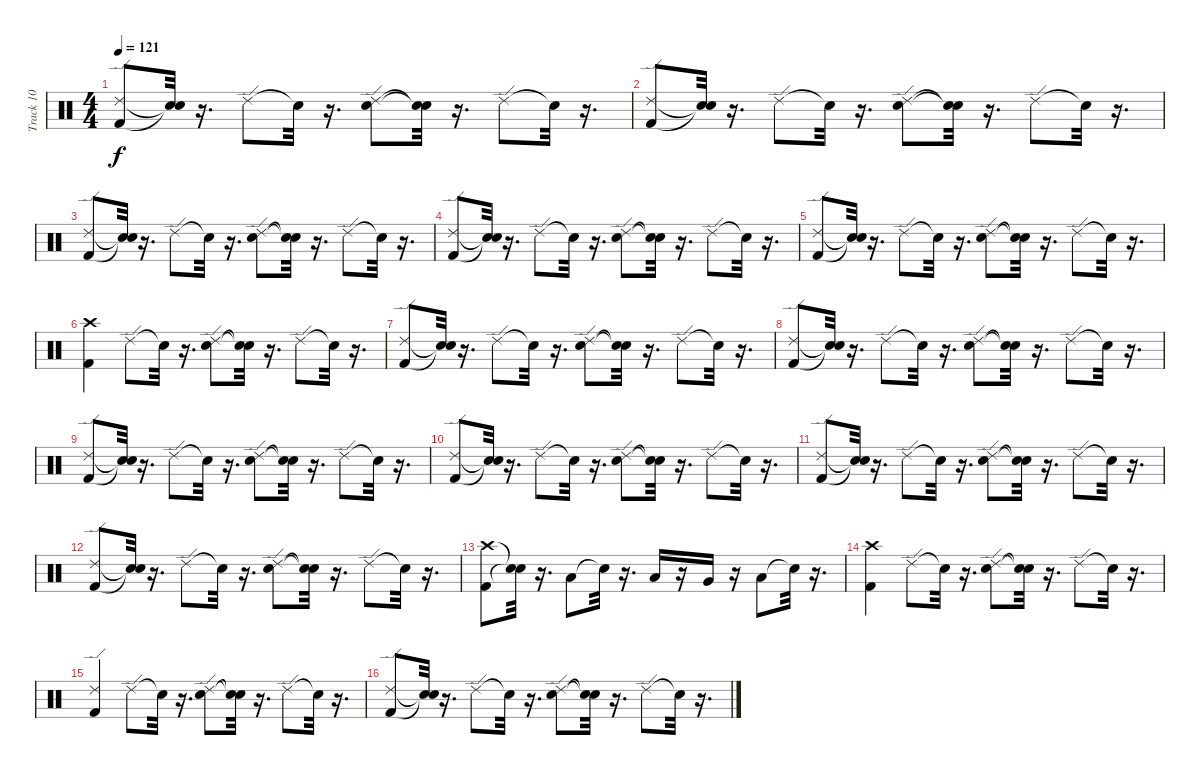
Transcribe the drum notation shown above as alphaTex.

\track ("Track 10" "Track 10") {instrument percussion}
\staff {score}
\articulation defaults
\ts (4 4)
\tempo 121
\clef neutral
\ks c
("Ride (edge) 2" "Kick (hit) 2").8{dy f} ("Snare (hit)"{t} "Snare (hit)"{t}).32 r.16{d} "Ride (edge) 2".8 "Snare (hit)"{t}.32 r.16{d} ("Ride (edge) 2" "Snare (hit) 2").8 ("Snare (hit)"{t} "Snare (hit)"{t}).32 r.16{d} "Ride (edge) 2".8 "Snare (hit)"{t}.32 r.16{d} |
("Ride (edge) 2" "Kick (hit) 2").8 ("Snare (hit)"{t} "Snare (hit)"{t}).32 r.16{d} "Ride (edge) 2".8 "Snare (hit)"{t}.32 r.16{d} ("Ride (edge) 2" "Snare (hit) 2").8 ("Snare (hit)"{t} "Snare (hit)"{t}).32 r.16{d} "Ride (edge) 2".8 "Snare (hit)"{t}.32 r.16{d} |
("Ride (edge) 2" "Kick (hit) 2").8 ("Snare (hit)"{t} "Snare (hit)"{t}).32 r.16{d} "Ride (edge) 2".8 "Snare (hit)"{t}.32 r.16{d} ("Ride (edge) 2" "Snare (hit) 2").8 ("Snare (hit)"{t} "Snare (hit)"{t}).32 r.16{d} "Ride (edge) 2".8 "Snare (hit)"{t}.32 r.16{d} |
("Ride (edge) 2" "Kick (hit) 2").8 ("Snare (hit)"{t} "Snare (hit)"{t}).32 r.16{d} "Ride (edge) 2".8 "Snare (hit)"{t}.32 r.16{d} ("Ride (edge) 2" "Snare (hit) 2").8 ("Snare (hit)"{t} "Snare (hit)"{t}).32 r.16{d} "Ride (edge) 2".8 "Snare (hit)"{t}.32 r.16{d} |
("Ride (edge) 2" "Kick (hit) 2").8 ("Snare (hit)"{t} "Snare (hit)"{t}).32 r.16{d} "Ride (edge) 2".8 "Snare (hit)"{t}.32 r.16{d} ("Ride (edge) 2" "Snare (hit) 2").8 ("Snare (hit)"{t} "Snare (hit)"{t}).32 r.16{d} "Ride (edge) 2".8 "Snare (hit)"{t}.32 r.16{d} |
("Crash high (hit)" "Kick (hit) 2").4 "Ride (edge) 2".8 "Snare (hit)"{t}.32 r.16{d} ("Ride (edge) 2" "Snare (hit) 2").8 ("Snare (hit)"{t} "Snare (hit)"{t}).32 r.16{d} "Ride (edge) 2".8 "Snare (hit)"{t}.32 r.16{d} |
("Ride (edge) 2" "Kick (hit) 2").8 ("Snare (hit)"{t} "Snare (hit)"{t}).32 r.16{d} "Ride (edge) 2".8 "Snare (hit)"{t}.32 r.16{d} ("Ride (edge) 2" "Snare (hit) 2").8 ("Snare (hit)"{t} "Snare (hit)"{t}).32 r.16{d} "Ride (edge) 2".8 "Snare (hit)"{t}.32 r.16{d} |
("Ride (edge) 2" "Kick (hit) 2").8 ("Snare (hit)"{t} "Snare (hit)"{t}).32 r.16{d} "Ride (edge) 2".8 "Snare (hit)"{t}.32 r.16{d} ("Ride (edge) 2" "Snare (hit) 2").8 ("Snare (hit)"{t} "Snare (hit)"{t}).32 r.16{d} "Ride (edge) 2".8 "Snare (hit)"{t}.32 r.16{d} |
("Ride (edge) 2" "Kick (hit) 2").8 ("Snare (hit)"{t} "Snare (hit)"{t}).32 r.16{d} "Ride (edge) 2".8 "Snare (hit)"{t}.32 r.16{d} ("Ride (edge) 2" "Snare (hit) 2").8 ("Snare (hit)"{t} "Snare (hit)"{t}).32 r.16{d} "Ride (edge) 2".8 "Snare (hit)"{t}.32 r.16{d} |
("Ride (edge) 2" "Kick (hit) 2").8 ("Snare (hit)"{t} "Snare (hit)"{t}).32 r.16{d} "Ride (edge) 2".8 "Snare (hit)"{t}.32 r.16{d} ("Ride (edge) 2" "Snare (hit) 2").8 ("Snare (hit)"{t} "Snare (hit)"{t}).32 r.16{d} "Ride (edge) 2".8 "Snare (hit)"{t}.32 r.16{d} |
("Ride (edge) 2" "Kick (hit) 2").8 ("Snare (hit)"{t} "Snare (hit)"{t}).32 r.16{d} "Ride (edge) 2".8 "Snare (hit)"{t}.32 r.16{d} ("Ride (edge) 2" "Snare (hit) 2").8 ("Snare (hit)"{t} "Snare (hit)"{t}).32 r.16{d} "Ride (edge) 2".8 "Snare (hit)"{t}.32 r.16{d} |
("Ride (edge) 2" "Kick (hit) 2").8 ("Snare (hit)"{t} "Snare (hit)"{t}).32 r.16{d} "Ride (edge) 2".8 "Snare (hit)"{t}.32 r.16{d} ("Ride (edge) 2" "Snare (hit) 2").8 ("Snare (hit)"{t} "Snare (hit)"{t}).32 r.16{d} "Ride (edge) 2".8 "Snare (hit)"{t}.32 r.16{d} |
("Crash high (hit)" "Kick (hit) 2").8 ("Snare (hit)"{t} "Snare (hit)"{t}).32 r.16{d} "Low Tom (hit)".8 "Snare (hit)"{t}.32 r.16{d} "Low Tom (hit)".16 r.16 "Very Low Tom (hit)".16 r.16 "Low Tom (hit)".8 "Snare (hit)"{t}.32 r.16{d} |
("Crash high (hit)" "Kick (hit) 2").4 "Ride (edge) 2".8 "Snare (hit)"{t}.32 r.16{d} ("Ride (edge) 2" "Snare (hit) 2").8 ("Snare (hit)"{t} "Snare (hit)"{t}).32 r.16{d} "Ride (edge) 2".8 "Snare (hit)"{t}.32 r.16{d} |
("Ride (edge) 2" "Kick (hit) 2").4 "Ride (edge) 2".8 "Snare (hit)"{t}.32 r.16{d} ("Ride (edge) 2" "Snare (hit) 2").8 ("Snare (hit)"{t} "Snare (hit)"{t}).32 r.16{d} "Ride (edge) 2".8 "Snare (hit)"{t}.32 r.16{d} |
("Ride (edge) 2" "Kick (hit) 2").8 ("Snare (hit)"{t} "Snare (hit)"{t}).32 r.16{d} "Ride (edge) 2".8 "Snare (hit)"{t}.32 r.16{d} ("Ride (edge) 2" "Snare (hit) 2").8 ("Snare (hit)"{t} "Snare (hit)"{t}).32 r.16{d} "Ride (edge) 2".8 "Snare (hit)"{t}.32 r.16{d}
